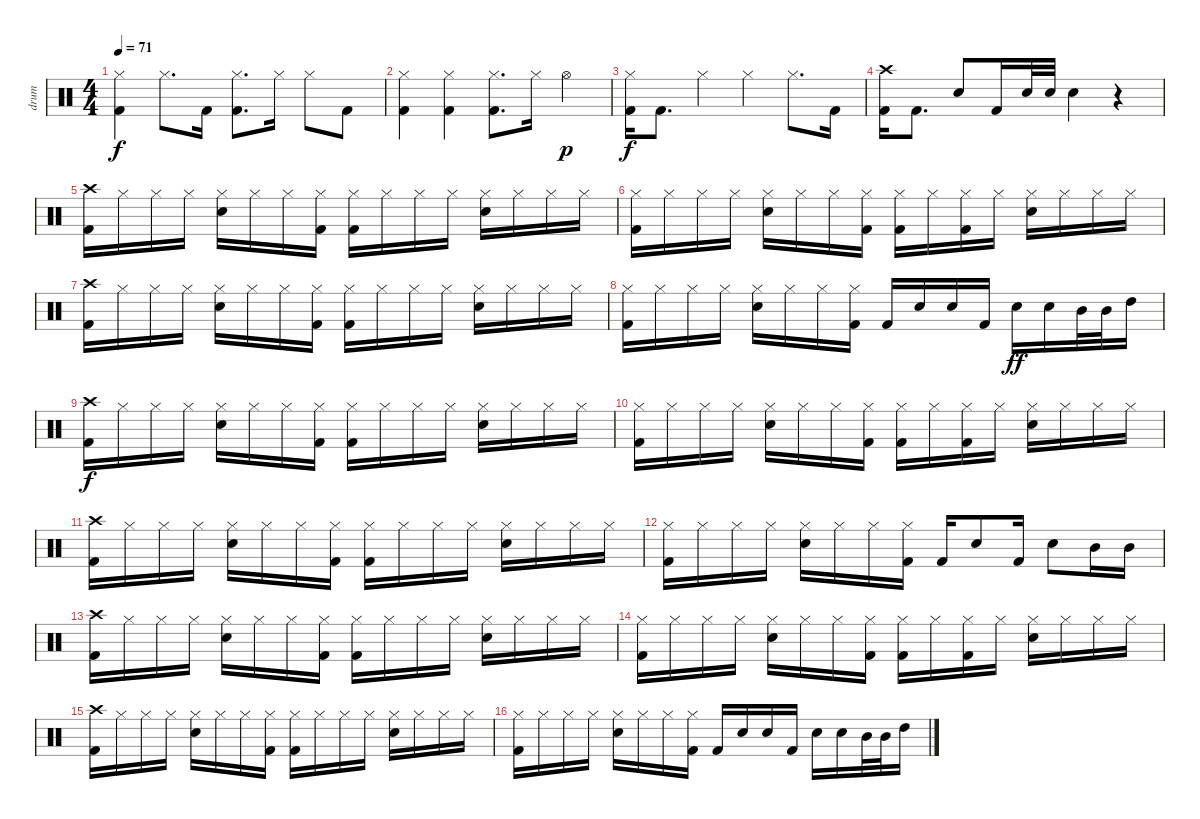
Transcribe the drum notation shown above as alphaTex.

\track ("drum" "drum") {instrument percussion}
\staff {score}
\articulation defaults
\ts (4 4)
\tempo 71
\clef neutral
\ks c
("Hi-Hat (closed)" "Kick (hit) 2").4{dy f} "Hi-Hat (closed)".8{d} "Kick (hit) 2".16 ("Hi-Hat (closed)" "Kick (hit) 2").8{d} "Hi-Hat (closed)".16 "Hi-Hat (closed)".8 "Kick (hit) 2".8 |
("Hi-Hat (closed)" "Kick (hit) 2").4 ("Hi-Hat (closed)" "Kick (hit) 2").4 ("Hi-Hat (closed)" "Kick (hit) 2").8{d} "Hi-Hat (closed)".16 "Hi-Hat (open)".4{dy p} |
("Hi-Hat (closed)" "Kick (hit) 2").16{dy f} "Kick (hit) 2".8{d} "Hi-Hat (closed)".4 "Hi-Hat (closed)".4 "Hi-Hat (closed)".8{d} "Kick (hit) 2".16 |
("Crash high (hit)" "Kick (hit) 2").16 "Kick (hit) 2".8{d} "Electric Snare (hit)".8 "Kick (hit) 2".16 "Electric Snare (hit)".32 "Electric Snare (hit)".32 "Electric Snare (hit)".4 r.4 |
("Crash high (hit)" "Kick (hit) 2").16 "Hi-Hat (closed)".16 "Hi-Hat (closed)".16 "Hi-Hat (closed)".16 ("Hi-Hat (closed)" "Snare (hit) 2").16 "Hi-Hat (closed)".16 "Hi-Hat (closed)".16 ("Hi-Hat (closed)" "Kick (hit) 2").16 ("Hi-Hat (closed)" "Kick (hit) 2").16 "Hi-Hat (closed)".16 "Hi-Hat (closed)".16 "Hi-Hat (closed)".16 ("Hi-Hat (closed)" "Snare (hit) 2").16 "Hi-Hat (closed)".16 "Hi-Hat (closed)".16 "Hi-Hat (closed)".16 |
("Hi-Hat (closed)" "Kick (hit) 2").16 "Hi-Hat (closed)".16 "Hi-Hat (closed)".16 "Hi-Hat (closed)".16 ("Hi-Hat (closed)" "Snare (hit) 2").16 "Hi-Hat (closed)".16 "Hi-Hat (closed)".16 ("Hi-Hat (closed)" "Kick (hit) 2").16 ("Hi-Hat (closed)" "Kick (hit) 2").16 "Hi-Hat (closed)".16 ("Hi-Hat (closed)" "Kick (hit) 2").16 "Hi-Hat (closed)".16 ("Hi-Hat (closed)" "Snare (hit) 2").16 "Hi-Hat (closed)".16 "Hi-Hat (closed)".16 "Hi-Hat (closed)".16 |
("Crash high (hit)" "Kick (hit) 2").16 "Hi-Hat (closed)".16 "Hi-Hat (closed)".16 "Hi-Hat (closed)".16 ("Hi-Hat (closed)" "Snare (hit) 2").16 "Hi-Hat (closed)".16 "Hi-Hat (closed)".16 ("Hi-Hat (closed)" "Kick (hit) 2").16 ("Hi-Hat (closed)" "Kick (hit) 2").16 "Hi-Hat (closed)".16 "Hi-Hat (closed)".16 "Hi-Hat (closed)".16 ("Hi-Hat (closed)" "Snare (hit) 2").16 "Hi-Hat (closed)".16 "Hi-Hat (closed)".16 "Hi-Hat (closed)".16 |
("Hi-Hat (closed)" "Kick (hit) 2").16 "Hi-Hat (closed)".16 "Hi-Hat (closed)".16 "Hi-Hat (closed)".16 ("Hi-Hat (closed)" "Snare (hit) 2").16 "Hi-Hat (closed)".16 "Hi-Hat (closed)".16 ("Hi-Hat (closed)" "Kick (hit) 2").16 "Kick (hit) 2".16 "Snare (hit) 2".16 "Snare (hit) 2".16 "Kick (hit) 2".16 "Snare (hit) 2".16{dy ff} "Snare (hit) 2".16 "Mid Tom (hit)".32 "Mid Tom (hit)".32 "High Tom (hit)".16 |
("Crash high (hit)" "Kick (hit) 2").16{dy f} "Hi-Hat (closed)".16 "Hi-Hat (closed)".16 "Hi-Hat (closed)".16 ("Hi-Hat (closed)" "Snare (hit) 2").16 "Hi-Hat (closed)".16 "Hi-Hat (closed)".16 ("Hi-Hat (closed)" "Kick (hit) 2").16 ("Hi-Hat (closed)" "Kick (hit) 2").16 "Hi-Hat (closed)".16 "Hi-Hat (closed)".16 "Hi-Hat (closed)".16 ("Hi-Hat (closed)" "Snare (hit) 2").16 "Hi-Hat (closed)".16 "Hi-Hat (closed)".16 "Hi-Hat (closed)".16 |
("Hi-Hat (closed)" "Kick (hit) 2").16 "Hi-Hat (closed)".16 "Hi-Hat (closed)".16 "Hi-Hat (closed)".16 ("Hi-Hat (closed)" "Snare (hit) 2").16 "Hi-Hat (closed)".16 "Hi-Hat (closed)".16 ("Hi-Hat (closed)" "Kick (hit) 2").16 ("Hi-Hat (closed)" "Kick (hit) 2").16 "Hi-Hat (closed)".16 ("Hi-Hat (closed)" "Kick (hit) 2").16 "Hi-Hat (closed)".16 ("Hi-Hat (closed)" "Snare (hit) 2").16 "Hi-Hat (closed)".16 "Hi-Hat (closed)".16 "Hi-Hat (closed)".16 |
("Crash high (hit)" "Kick (hit) 2").16 "Hi-Hat (closed)".16 "Hi-Hat (closed)".16 "Hi-Hat (closed)".16 ("Hi-Hat (closed)" "Snare (hit) 2").16 "Hi-Hat (closed)".16 "Hi-Hat (closed)".16 ("Hi-Hat (closed)" "Kick (hit) 2").16 ("Hi-Hat (closed)" "Kick (hit) 2").16 "Hi-Hat (closed)".16 "Hi-Hat (closed)".16 "Hi-Hat (closed)".16 ("Hi-Hat (closed)" "Snare (hit) 2").16 "Hi-Hat (closed)".16 "Hi-Hat (closed)".16 "Hi-Hat (closed)".16 |
("Hi-Hat (closed)" "Kick (hit) 2").16 "Hi-Hat (closed)".16 "Hi-Hat (closed)".16 "Hi-Hat (closed)".16 ("Hi-Hat (closed)" "Snare (hit) 2").16 "Hi-Hat (closed)".16 "Hi-Hat (closed)".16 ("Hi-Hat (closed)" "Kick (hit) 2").16 "Kick (hit) 2".16 "Snare (hit) 2".8 "Kick (hit) 2".16 "Snare (hit) 2".8 "Mid Tom (hit)".16 "Mid Tom (hit)".16 |
("Crash high (hit)" "Kick (hit) 2").16 "Hi-Hat (closed)".16 "Hi-Hat (closed)".16 "Hi-Hat (closed)".16 ("Hi-Hat (closed)" "Snare (hit) 2").16 "Hi-Hat (closed)".16 "Hi-Hat (closed)".16 ("Hi-Hat (closed)" "Kick (hit) 2").16 ("Hi-Hat (closed)" "Kick (hit) 2").16 "Hi-Hat (closed)".16 "Hi-Hat (closed)".16 "Hi-Hat (closed)".16 ("Hi-Hat (closed)" "Snare (hit) 2").16 "Hi-Hat (closed)".16 "Hi-Hat (closed)".16 "Hi-Hat (closed)".16 |
("Hi-Hat (closed)" "Kick (hit) 2").16 "Hi-Hat (closed)".16 "Hi-Hat (closed)".16 "Hi-Hat (closed)".16 ("Hi-Hat (closed)" "Snare (hit) 2").16 "Hi-Hat (closed)".16 "Hi-Hat (closed)".16 ("Hi-Hat (closed)" "Kick (hit) 2").16 ("Hi-Hat (closed)" "Kick (hit) 2").16 "Hi-Hat (closed)".16 ("Hi-Hat (closed)" "Kick (hit) 2").16 "Hi-Hat (closed)".16 ("Hi-Hat (closed)" "Snare (hit) 2").16 "Hi-Hat (closed)".16 "Hi-Hat (closed)".16 "Hi-Hat (closed)".16 |
("Crash high (hit)" "Kick (hit) 2").16 "Hi-Hat (closed)".16 "Hi-Hat (closed)".16 "Hi-Hat (closed)".16 ("Hi-Hat (closed)" "Snare (hit) 2").16 "Hi-Hat (closed)".16 "Hi-Hat (closed)".16 ("Hi-Hat (closed)" "Kick (hit) 2").16 ("Hi-Hat (closed)" "Kick (hit) 2").16 "Hi-Hat (closed)".16 "Hi-Hat (closed)".16 "Hi-Hat (closed)".16 ("Hi-Hat (closed)" "Snare (hit) 2").16 "Hi-Hat (closed)".16 "Hi-Hat (closed)".16 "Hi-Hat (closed)".16 |
("Hi-Hat (closed)" "Kick (hit) 2").16 "Hi-Hat (closed)".16 "Hi-Hat (closed)".16 "Hi-Hat (closed)".16 ("Hi-Hat (closed)" "Snare (hit) 2").16 "Hi-Hat (closed)".16 "Hi-Hat (closed)".16 ("Hi-Hat (closed)" "Kick (hit) 2").16 "Kick (hit) 2".16 "Snare (hit) 2".16 "Snare (hit) 2".16 "Kick (hit) 2".16 "Snare (hit) 2".16 "Snare (hit) 2".16 "Mid Tom (hit)".32 "Mid Tom (hit)".32 "High Tom (hit)".16
